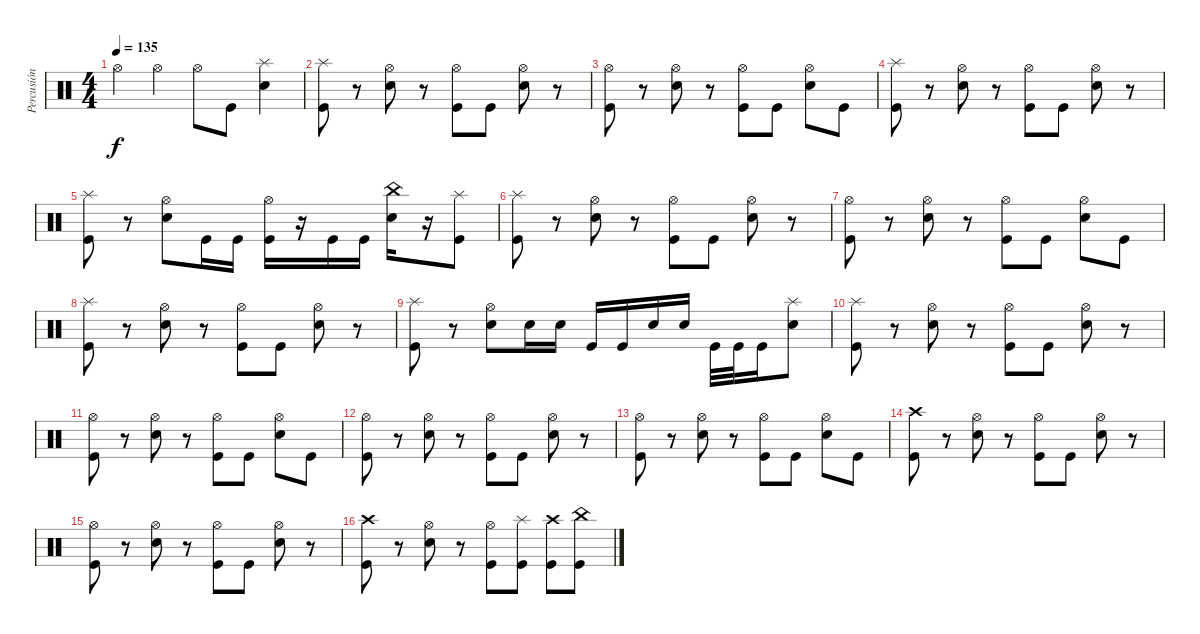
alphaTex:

\track ("Percusión" "Percusión") {instrument percussion}
\staff {score}
\articulation defaults
\ts (4 4)
\tempo 135
\clef neutral
\ks c "Hi-Hat (open)".4{dy f} "Hi-Hat (open)".4 "Hi-Hat (open)".8 "Kick (hit)".8
("Electric Snare (hit)" "Splash (hit)").4 |
("Kick (hit)" "Splash (hit)").8 r.8 ("Electric Snare (hit)" "Hi-Hat (open)").8 r.8 ("Kick (hit)" "Hi-Hat (open)").8 "Kick (hit)".8 ("Electric Snare (hit)" "Hi-Hat (open)").8 r.8 |
("Kick (hit)" "Hi-Hat (open)").8 r.8 ("Electric Snare (hit)" "Hi-Hat (open)").8 r.8 ("Kick (hit)" "Hi-Hat (open)").8 "Kick (hit)".8 ("Electric Snare (hit)" "Hi-Hat (open)").8 "Kick (hit)".8 |
("Kick (hit)" "Splash (hit)").8 r.8 ("Electric Snare (hit)" "Hi-Hat (open)").8 r.8 ("Kick (hit)" "Hi-Hat (open)").8 "Kick (hit)".8 ("Electric Snare (hit)" "Hi-Hat (open)").8 r.8 |
("Kick (hit)" "Splash (hit)").8 r.8 ("Electric Snare (hit)" "Hi-Hat (open)").8 "Kick (hit)".16 "Kick (hit)".16 ("Kick (hit)" "Hi-Hat (open)").16 r.16 "Kick (hit)".16 "Kick (hit)".16 ("Electric Snare (hit)" "China (hit)").16 r.16 ("Kick (hit)" "Splash (hit)").8 |
("Kick (hit)" "Splash (hit)").8 r.8 ("Electric Snare (hit)" "Hi-Hat (open)").8 r.8 ("Kick (hit)" "Hi-Hat (open)").8 "Kick (hit)".8 ("Electric Snare (hit)" "Hi-Hat (open)").8 r.8 |
("Kick (hit)" "Hi-Hat (open)").8 r.8 ("Electric Snare (hit)" "Hi-Hat (open)").8 r.8 ("Kick (hit)" "Hi-Hat (open)").8 "Kick (hit)".8 ("Electric Snare (hit)" "Hi-Hat (open)").8 "Kick (hit)".8 |
("Kick (hit)" "Splash (hit)").8 r.8 ("Electric Snare (hit)" "Hi-Hat (open)").8 r.8 ("Kick (hit)" "Hi-Hat (open)").8 "Kick (hit)".8 ("Electric Snare (hit)" "Hi-Hat (open)").8 r.8 |
("Kick (hit)" "Splash (hit)").8 r.8 ("Electric Snare (hit)" "Hi-Hat (open)").8 "Electric Snare (hit)".16 "Electric Snare (hit)".16 "Kick (hit)".16 "Kick (hit)".16 "Electric Snare (hit)".16 "Electric Snare (hit)".16 "Kick (hit)".32 "Kick (hit)".32 "Kick (hit)".16 ("Electric Snare (hit)" "Splash (hit)").8 |
("Kick (hit)" "Splash (hit)").8 r.8 ("Electric Snare (hit)" "Hi-Hat (open)").8 r.8 ("Kick (hit)" "Hi-Hat (open)").8 "Kick (hit)".8 ("Electric Snare (hit)" "Hi-Hat (open)").8 r.8 |
("Kick (hit)" "Hi-Hat (open)").8 r.8 ("Electric Snare (hit)" "Hi-Hat (open)").8 r.8 ("Kick (hit)" "Hi-Hat (open)").8 "Kick (hit)".8 ("Electric Snare (hit)" "Hi-Hat (open)").8 "Kick (hit)".8 |
("Kick (hit)" "Hi-Hat (open)").8 r.8 ("Electric Snare (hit)" "Hi-Hat (open)").8 r.8 ("Kick (hit)" "Hi-Hat (open)").8 "Kick (hit)".8 ("Electric Snare (hit)" "Hi-Hat (open)").8 r.8 |
("Kick (hit)" "Hi-Hat (open)").8 r.8 ("Electric Snare (hit)" "Hi-Hat (open)").8 r.8 ("Kick (hit)" "Hi-Hat (open)").8 "Kick (hit)".8 ("Electric Snare (hit)" "Hi-Hat (open)").8 "Kick (hit)".8 |
("Kick (hit)" "Crash high (hit)").8 r.8 ("Electric Snare (hit)" "Hi-Hat (open)").8 r.8 ("Kick (hit)" "Hi-Hat (open)").8 "Kick (hit)".8 ("Electric Snare (hit)" "Hi-Hat (open)").8 r.8 |
("Kick (hit)" "Hi-Hat (open)").8 r.8 ("Electric Snare (hit)" "Hi-Hat (open)").8 r.8 ("Kick (hit)" "Hi-Hat (open)").8 "Kick (hit)".8 ("Electric Snare (hit)" "Hi-Hat (open)").8 r.8 |
("Kick (hit)" "Crash high (hit)").8 r.8 ("Electric Snare (hit)" "Hi-Hat (open)").8 r.8 ("Kick (hit)" "Hi-Hat (open)").8 ("Kick (hit)" "Splash (hit)").8 ("Kick (hit)" "Crash high (hit)").8 ("Kick (hit)" "China (hit)").8
